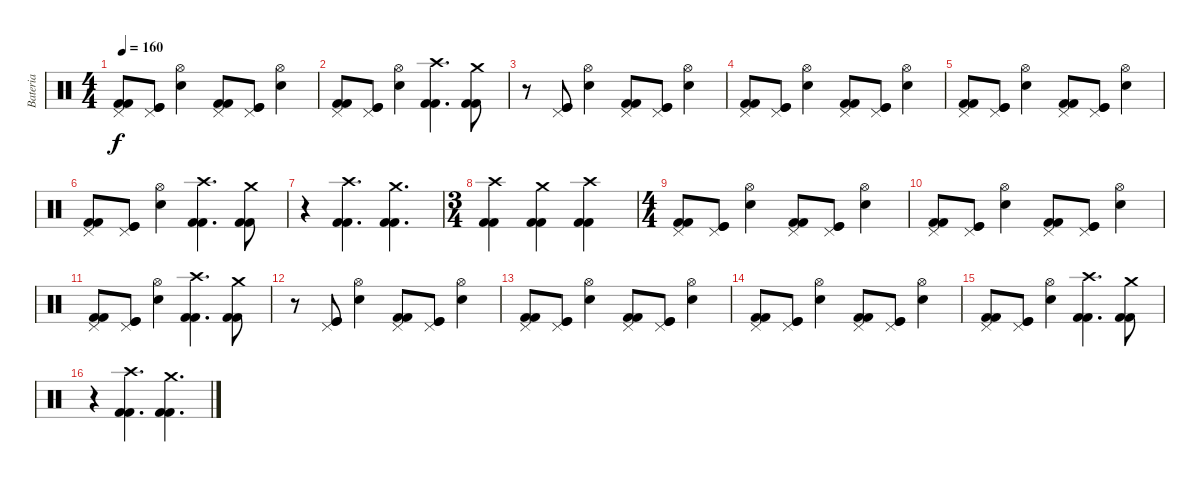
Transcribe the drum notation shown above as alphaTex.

\track ("Bateria" "Bateria") {instrument percussion}
\staff {score}
\articulation defaults
\ts (4 4)
\tempo 160
\clef neutral
\ks c
("Kick (hit) 2" "Kick (hit) 2" "Pedal Hi-Hat (hit)").8{dy f} ("Kick (hit)" "Kick (hit)" "Pedal Hi-Hat (hit)").8 ("Snare (hit) 2" "Hi-Hat (open)").4 ("Kick (hit) 2" "Kick (hit) 2" "Pedal Hi-Hat (hit)").8 ("Kick (hit)" "Kick (hit)" "Pedal Hi-Hat (hit)").8 ("Snare (hit) 2" "Hi-Hat (open)").4 |
("Kick (hit) 2" "Kick (hit) 2" "Pedal Hi-Hat (hit)").8 ("Kick (hit)" "Kick (hit)" "Pedal Hi-Hat (hit)").8 ("Snare (hit) 2" "Hi-Hat (open)").4 ("Kick (hit) 2" "Kick (hit) 2" "Crash high (hit)").4{d} ("Kick (hit) 2" "Kick (hit) 2" "Crash medium (hit)").8 |
r.8 ("Kick (hit)" "Kick (hit)" "Pedal Hi-Hat (hit)").8 ("Snare (hit) 2" "Hi-Hat (open)").4 ("Kick (hit) 2" "Kick (hit) 2" "Pedal Hi-Hat (hit)").8 ("Kick (hit)" "Kick (hit)" "Pedal Hi-Hat (hit)").8 ("Snare (hit) 2" "Hi-Hat (open)").4 |
("Kick (hit) 2" "Kick (hit) 2" "Pedal Hi-Hat (hit)").8 ("Kick (hit)" "Kick (hit)" "Pedal Hi-Hat (hit)").8 ("Snare (hit) 2" "Hi-Hat (open)").4 ("Kick (hit) 2" "Kick (hit) 2" "Pedal Hi-Hat (hit)").8 ("Kick (hit)" "Kick (hit)" "Pedal Hi-Hat (hit)").8 ("Snare (hit) 2" "Hi-Hat (open)").4 |
("Kick (hit) 2" "Kick (hit) 2" "Pedal Hi-Hat (hit)").8 ("Kick (hit)" "Kick (hit)" "Pedal Hi-Hat (hit)").8 ("Snare (hit) 2" "Hi-Hat (open)").4 ("Kick (hit) 2" "Kick (hit) 2" "Pedal Hi-Hat (hit)").8 ("Kick (hit)" "Kick (hit)" "Pedal Hi-Hat (hit)").8 ("Snare (hit) 2" "Hi-Hat (open)").4 |
("Kick (hit) 2" "Kick (hit) 2" "Pedal Hi-Hat (hit)").8 ("Kick (hit)" "Kick (hit)" "Pedal Hi-Hat (hit)").8 ("Snare (hit) 2" "Hi-Hat (open)").4 ("Kick (hit) 2" "Kick (hit) 2" "Crash high (hit)").4{d} ("Kick (hit) 2" "Kick (hit) 2" "Crash medium (hit)").8 |
r.4 ("Kick (hit) 2" "Kick (hit) 2" "Crash high (hit)").4{d} ("Kick (hit) 2" "Kick (hit) 2" "Crash medium (hit)").4{d} |
\ts (3 4)
("Kick (hit) 2" "Kick (hit) 2" "Crash high (hit)").4 ("Kick (hit) 2" "Kick (hit) 2" "Crash medium (hit)").4 ("Kick (hit) 2" "Kick (hit) 2" "Crash high (hit)").4 |
\ts (4 4)
("Kick (hit) 2" "Kick (hit) 2" "Pedal Hi-Hat (hit)").8 ("Kick (hit)" "Kick (hit)" "Pedal Hi-Hat (hit)").8 ("Snare (hit) 2" "Hi-Hat (open)").4 ("Kick (hit) 2" "Kick (hit) 2" "Pedal Hi-Hat (hit)").8 ("Kick (hit)" "Kick (hit)" "Pedal Hi-Hat (hit)").8 ("Snare (hit) 2" "Hi-Hat (open)").4 |
("Kick (hit) 2" "Kick (hit) 2" "Pedal Hi-Hat (hit)").8 ("Kick (hit)" "Kick (hit)" "Pedal Hi-Hat (hit)").8 ("Snare (hit) 2" "Hi-Hat (open)").4 ("Kick (hit) 2" "Kick (hit) 2" "Pedal Hi-Hat (hit)").8 ("Kick (hit)" "Kick (hit)" "Pedal Hi-Hat (hit)").8 ("Snare (hit) 2" "Hi-Hat (open)").4 |
("Kick (hit) 2" "Kick (hit) 2" "Pedal Hi-Hat (hit)").8 ("Kick (hit)" "Kick (hit)" "Pedal Hi-Hat (hit)").8 ("Snare (hit) 2" "Hi-Hat (open)").4 ("Kick (hit) 2" "Kick (hit) 2" "Crash high (hit)").4{d} ("Kick (hit) 2" "Kick (hit) 2" "Crash medium (hit)").8 |
r.8 ("Kick (hit)" "Kick (hit)" "Pedal Hi-Hat (hit)").8 ("Snare (hit) 2" "Hi-Hat (open)").4 ("Kick (hit) 2" "Kick (hit) 2" "Pedal Hi-Hat (hit)").8 ("Kick (hit)" "Kick (hit)" "Pedal Hi-Hat (hit)").8 ("Snare (hit) 2" "Hi-Hat (open)").4 |
("Kick (hit) 2" "Kick (hit) 2" "Pedal Hi-Hat (hit)").8 ("Kick (hit)" "Kick (hit)" "Pedal Hi-Hat (hit)").8 ("Snare (hit) 2" "Hi-Hat (open)").4 ("Kick (hit) 2" "Kick (hit) 2" "Pedal Hi-Hat (hit)").8 ("Kick (hit)" "Kick (hit)" "Pedal Hi-Hat (hit)").8 ("Snare (hit) 2" "Hi-Hat (open)").4 |
("Kick (hit) 2" "Kick (hit) 2" "Pedal Hi-Hat (hit)").8 ("Kick (hit)" "Kick (hit)" "Pedal Hi-Hat (hit)").8 ("Snare (hit) 2" "Hi-Hat (open)").4 ("Kick (hit) 2" "Kick (hit) 2" "Pedal Hi-Hat (hit)").8 ("Kick (hit)" "Kick (hit)" "Pedal Hi-Hat (hit)").8 ("Snare (hit) 2" "Hi-Hat (open)").4 |
("Kick (hit) 2" "Kick (hit) 2" "Pedal Hi-Hat (hit)").8 ("Kick (hit)" "Kick (hit)" "Pedal Hi-Hat (hit)").8 ("Snare (hit) 2" "Hi-Hat (open)").4 ("Kick (hit) 2" "Kick (hit) 2" "Crash high (hit)").4{d} ("Kick (hit) 2" "Kick (hit) 2" "Crash medium (hit)").8 |
r.4 ("Kick (hit) 2" "Kick (hit) 2" "Crash high (hit)").4{d} ("Kick (hit) 2" "Kick (hit) 2" "Crash medium (hit)").4{d}
